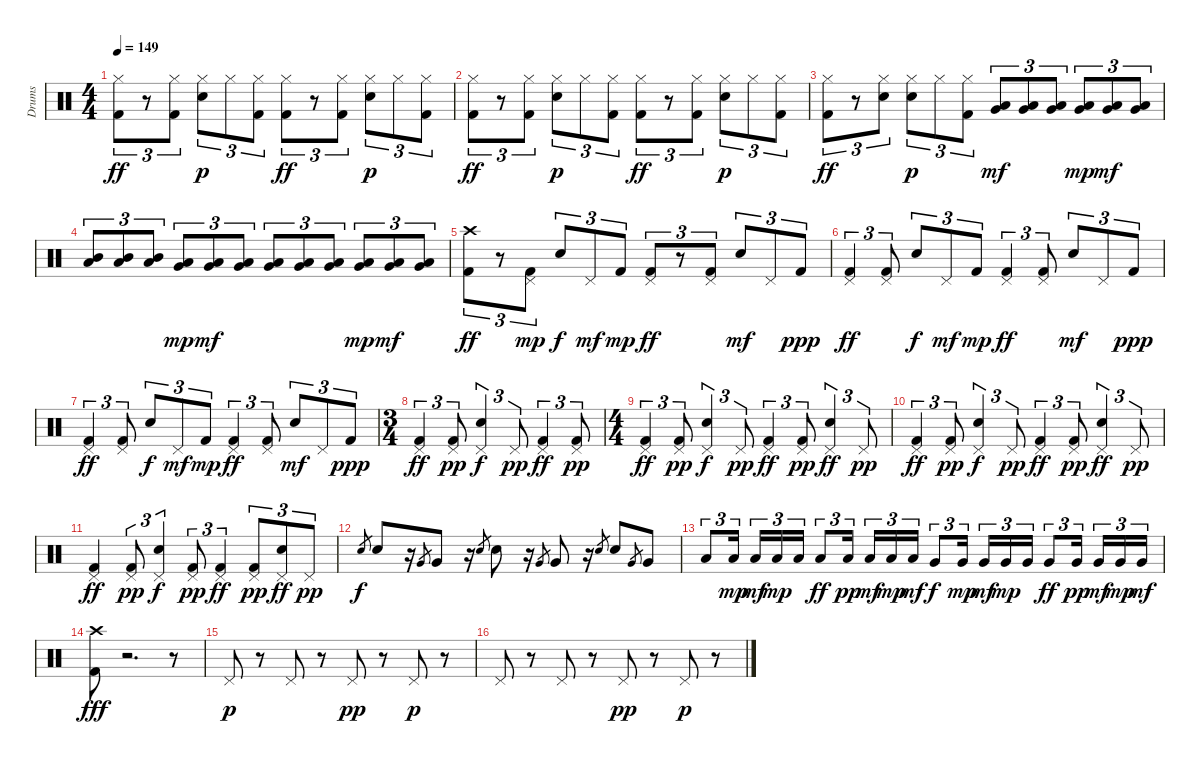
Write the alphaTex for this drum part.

\track ("Drums" "Drums") {instrument percussion}
\staff {score}
\articulation defaults
\ts (4 4)
\tempo 149
\clef neutral
\ks c
("Kick (hit) 2" "Hi-Hat (closed)").8{tu (3 2) dy ff} r.8{tu (3 2)} ("Kick (hit) 2" "Hi-Hat (closed)").8{tu (3 2)} ("Snare (hit) 2" "Hi-Hat (closed)").8{tu (3 2) dy p} "Hi-Hat (closed)".8{tu (3 2)} ("Kick (hit) 2" "Hi-Hat (closed)").8{tu (3 2)} ("Kick (hit) 2" "Hi-Hat (closed)").8{tu (3 2) dy ff} r.8{tu (3 2)} ("Kick (hit) 2" "Hi-Hat (closed)").8{tu (3 2)} ("Snare (hit) 2" "Hi-Hat (closed)").8{tu (3 2) dy p} "Hi-Hat (closed)".8{tu (3 2)} ("Kick (hit) 2" "Hi-Hat (closed)").8{tu (3 2)} |
("Kick (hit) 2" "Hi-Hat (closed)").8{tu (3 2) dy ff} r.8{tu (3 2)} ("Kick (hit) 2" "Hi-Hat (closed)").8{tu (3 2)} ("Snare (hit) 2" "Hi-Hat (closed)").8{tu (3 2) dy p} "Hi-Hat (closed)".8{tu (3 2)} ("Kick (hit) 2" "Hi-Hat (closed)").8{tu (3 2)} ("Kick (hit) 2" "Hi-Hat (closed)").8{tu (3 2) dy ff} r.8{tu (3 2)} ("Kick (hit) 2" "Hi-Hat (closed)").8{tu (3 2)} ("Snare (hit) 2" "Hi-Hat (closed)").8{tu (3 2) dy p} "Hi-Hat (closed)".8{tu (3 2)} ("Kick (hit) 2" "Hi-Hat (closed)").8{tu (3 2)} |
("Kick (hit) 2" "Hi-Hat (closed)").8{tu (3 2) dy ff} r.8{tu (3 2)} ("Snare (hit) 2" "Hi-Hat (closed)").8{tu (3 2)} ("Snare (hit) 2" "Hi-Hat (closed)").8{tu (3 2) dy p} "Hi-Hat (closed)".8{tu (3 2)} ("Kick (hit) 2" "Hi-Hat (closed)").8{tu (3 2)} ("Low Floor Tom (hit)" "Very Low Tom (hit)").8{tu (3 2) dy mf} ("Low Floor Tom (hit)" "Very Low Tom (hit)").8{tu (3 2)} ("Low Floor Tom (hit)" "Very Low Tom (hit)").8{tu (3 2)} ("Low Tom (hit)" "Very Low Tom (hit)").8{tu (3 2) dy mp} ("Low Tom (hit)" "Very Low Tom (hit)").8{tu (3 2) dy mf} ("Low Tom (hit)" "Very Low Tom (hit)").8{tu (3 2)} |
("Low Tom (hit)" "Mid Tom (hit)").8{tu (3 2)} ("Low Tom (hit)" "Mid Tom (hit)").8{tu (3 2)} ("Low Tom (hit)" "Mid Tom (hit)").8{tu (3 2)} ("Very Low Tom (hit)" "Low Tom (hit)").8{tu (3 2) dy mp} ("Very Low Tom (hit)" "Low Tom (hit)").8{tu (3 2) dy mf} ("Very Low Tom (hit)" "Low Tom (hit)").8{tu (3 2)} ("Low Floor Tom (hit)" "Very Low Tom (hit)").8{tu (3 2)} ("Low Floor Tom (hit)" "Very Low Tom (hit)").8{tu (3 2)} ("Low Floor Tom (hit)" "Very Low Tom (hit)").8{tu (3 2)} ("Very Low Tom (hit)" "Low Tom (hit)").8{tu (3 2) dy mp} ("Very Low Tom (hit)" "Low Tom (hit)").8{tu (3 2) dy mf} ("Very Low Tom (hit)" "Low Tom (hit)").8{tu (3 2)} |
("Kick (hit) 2" "Crash high (hit)").8{tu (3 2) dy ff} r.8{tu (3 2)} ("Kick (hit) 2" "Pedal Hi-Hat (hit)").8{tu (3 2) dy mp} "Snare (hit) 2".8{tu (3 2) dy f} "Pedal Hi-Hat (hit)".8{tu (3 2) dy mf} "Kick (hit) 2".8{tu (3 2) dy mp} ("Kick (hit) 2" "Pedal Hi-Hat (hit)").8{tu (3 2) dy ff} r.8{tu (3 2)} ("Kick (hit) 2" "Pedal Hi-Hat (hit)").8{tu (3 2)} "Snare (hit) 2".8{tu (3 2) dy mf} "Pedal Hi-Hat (hit)".8{tu (3 2)} "Kick (hit) 2".8{tu (3 2) dy ppp} |
("Kick (hit) 2" "Pedal Hi-Hat (hit)").4{tu (3 2) dy ff} ("Kick (hit) 2" "Pedal Hi-Hat (hit)").8{tu (3 2)} "Snare (hit) 2".8{tu (3 2) dy f} "Pedal Hi-Hat (hit)".8{tu (3 2) dy mf} "Kick (hit) 2".8{tu (3 2) dy mp} ("Kick (hit) 2" "Pedal Hi-Hat (hit)").4{tu (3 2) dy ff} ("Kick (hit) 2" "Pedal Hi-Hat (hit)").8{tu (3 2)} "Snare (hit) 2".8{tu (3 2) dy mf} "Pedal Hi-Hat (hit)".8{tu (3 2)} "Kick (hit) 2".8{tu (3 2) dy ppp} |
("Kick (hit) 2" "Pedal Hi-Hat (hit)").4{tu (3 2) dy ff} ("Kick (hit) 2" "Pedal Hi-Hat (hit)").8{tu (3 2)} "Snare (hit) 2".8{tu (3 2) dy f} "Pedal Hi-Hat (hit)".8{tu (3 2) dy mf} "Kick (hit) 2".8{tu (3 2) dy mp} ("Kick (hit) 2" "Pedal Hi-Hat (hit)").4{tu (3 2) dy ff} ("Kick (hit) 2" "Pedal Hi-Hat (hit)").8{tu (3 2)} "Snare (hit) 2".8{tu (3 2) dy mf} "Pedal Hi-Hat (hit)".8{tu (3 2)} "Kick (hit) 2".8{tu (3 2) dy ppp} |
\ts (3 4)
("Kick (hit) 2" "Pedal Hi-Hat (hit)").4{tu (3 2) dy ff} ("Kick (hit) 2" "Pedal Hi-Hat (hit)").8{tu (3 2) dy pp} ("Snare (hit) 2" "Pedal Hi-Hat (hit)").4{tu (3 2) dy f} "Pedal Hi-Hat (hit)".8{tu (3 2) dy pp} ("Kick (hit) 2" "Pedal Hi-Hat (hit)").4{tu (3 2) dy ff} ("Kick (hit) 2" "Pedal Hi-Hat (hit)").8{tu (3 2) dy pp} |
\ts (4 4)
("Kick (hit) 2" "Pedal Hi-Hat (hit)").4{tu (3 2) dy ff} ("Kick (hit) 2" "Pedal Hi-Hat (hit)").8{tu (3 2) dy pp} ("Snare (hit) 2" "Pedal Hi-Hat (hit)").4{tu (3 2) dy f} "Pedal Hi-Hat (hit)".8{tu (3 2) dy pp} ("Kick (hit) 2" "Pedal Hi-Hat (hit)").4{tu (3 2) dy ff} ("Kick (hit) 2" "Pedal Hi-Hat (hit)").8{tu (3 2) dy pp} ("Snare (hit) 2" "Pedal Hi-Hat (hit)").4{tu (3 2) dy ff} "Pedal Hi-Hat (hit)".8{tu (3 2) dy pp} |
("Kick (hit) 2" "Pedal Hi-Hat (hit)").4{tu (3 2) dy ff} ("Kick (hit) 2" "Pedal Hi-Hat (hit)").8{tu (3 2) dy pp} ("Snare (hit) 2" "Pedal Hi-Hat (hit)").4{tu (3 2) dy f} "Pedal Hi-Hat (hit)".8{tu (3 2) dy pp} ("Kick (hit) 2" "Pedal Hi-Hat (hit)").4{tu (3 2) dy ff} ("Kick (hit) 2" "Pedal Hi-Hat (hit)").8{tu (3 2) dy pp} ("Snare (hit) 2" "Pedal Hi-Hat (hit)").4{tu (3 2) dy ff} "Pedal Hi-Hat (hit)".8{tu (3 2) dy pp} |
("Kick (hit) 2" "Pedal Hi-Hat (hit)").4{dy ff} ("Kick (hit) 2" "Pedal Hi-Hat (hit)").8{tu (3 2) dy pp} ("Snare (hit) 2" "Pedal Hi-Hat (hit)").4{tu (3 2) dy f} ("Kick (hit) 2" "Pedal Hi-Hat (hit)").8{tu (3 2) dy pp} ("Kick (hit) 2" "Pedal Hi-Hat (hit)").4{tu (3 2) dy ff} ("Kick (hit) 2" "Pedal Hi-Hat (hit)").8{tu (3 2) dy pp} ("Snare (hit) 2" "Pedal Hi-Hat (hit)").8{tu (3 2) dy ff} "Pedal Hi-Hat (hit)".8{tu (3 2) dy pp} |
"Snare (hit) 2".8{gr dy f} "Snare (hit) 2".8 r.16 "Very Low Tom (hit)".8{gr} "Very Low Tom (hit)".8 r.16 "Snare (hit) 2".8{gr} "Snare (hit) 2".8 r.16 "Very Low Tom (hit)".8{gr} "Very Low Tom (hit)".8 r.16 "Snare (hit) 2".8{gr} "Snare (hit) 2".8 "Very Low Tom (hit)".8{gr} "Very Low Tom (hit)".8 |
"Low Tom (hit)".8{tu (3 2)} "Low Tom (hit)".16{tu (3 2) dy mp} "Low Tom (hit)".16{tu (3 2) dy mf} "Low Tom (hit)".16{tu (3 2) dy mp} "Low Tom (hit)".16{tu (3 2)} "Low Tom (hit)".8{tu (3 2) dy ff} "Low Tom (hit)".16{tu (3 2) dy pp} "Low Tom (hit)".16{tu (3 2) dy mf} "Low Tom (hit)".16{tu (3 2) dy mp} "Low Tom (hit)".16{tu (3 2) dy mf} "Very Low Tom (hit)".8{tu (3 2) dy f} "Very Low Tom (hit)".16{tu (3 2) dy mp} "Very Low Tom (hit)".16{tu (3 2) dy mf} "Very Low Tom (hit)".16{tu (3 2) dy mp} "Very Low Tom (hit)".16{tu (3 2)} "Very Low Tom (hit)".8{tu (3 2) dy ff} "Very Low Tom (hit)".16{tu (3 2) dy pp} "Very Low Tom (hit)".16{tu (3 2) dy mf} "Very Low Tom (hit)".16{tu (3 2) dy mp} "Very Low Tom (hit)".16{tu (3 2) dy mf} |
("Kick (hit) 2" "Crash high (hit)").8{dy fff} r.2{d} r.8 |
"Pedal Hi-Hat (hit)".8{dy p} r.8 "Pedal Hi-Hat (hit)".8 r.8 "Pedal Hi-Hat (hit)".8{dy pp} r.8 "Pedal Hi-Hat (hit)".8{dy p} r.8 |
"Pedal Hi-Hat (hit)".8 r.8 "Pedal Hi-Hat (hit)".8 r.8 "Pedal Hi-Hat (hit)".8{dy pp} r.8 "Pedal Hi-Hat (hit)".8{dy p} r.8
